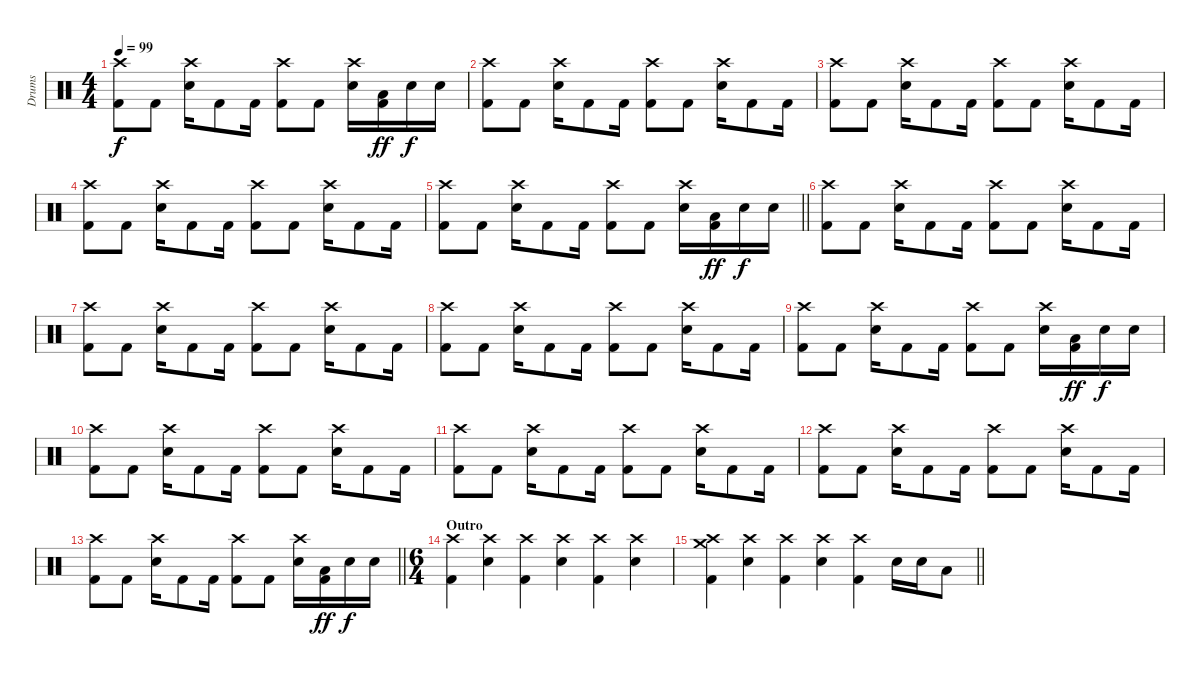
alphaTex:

\track ("Drums" "Drums") {instrument percussion}
\staff {score}
\articulation defaults
\ts (4 4)
\tempo 99
\clef neutral
\ks c
("Crash high (hit)" "Kick (hit) 2").8{dy f} "Kick (hit) 2".8 ("Crash high (hit)" "Electric Snare (hit)").16 "Kick (hit) 2".8 "Kick (hit) 2".16 ("Crash high (hit)" "Kick (hit) 2").8 "Kick (hit) 2".8 ("Crash high (hit)" "Electric Snare (hit)").16 ("Low Floor Tom (hit)" "Kick (hit) 2").16{dy ff} "Electric Snare (hit)".16{dy f} "Electric Snare (hit)".16 |
("Crash high (hit)" "Kick (hit) 2").8 "Kick (hit) 2".8 ("Crash high (hit)" "Electric Snare (hit)").16 "Kick (hit) 2".8 "Kick (hit) 2".16 ("Crash high (hit)" "Kick (hit) 2").8 "Kick (hit) 2".8 ("Crash high (hit)" "Electric Snare (hit)").16 "Kick (hit) 2".8 "Kick (hit) 2".16 |
("Crash high (hit)" "Kick (hit) 2").8 "Kick (hit) 2".8 ("Crash high (hit)" "Electric Snare (hit)").16 "Kick (hit) 2".8 "Kick (hit) 2".16 ("Crash high (hit)" "Kick (hit) 2").8 "Kick (hit) 2".8 ("Crash high (hit)" "Electric Snare (hit)").16 "Kick (hit) 2".8 "Kick (hit) 2".16 |
("Crash high (hit)" "Kick (hit) 2").8 "Kick (hit) 2".8 ("Crash high (hit)" "Electric Snare (hit)").16 "Kick (hit) 2".8 "Kick (hit) 2".16 ("Crash high (hit)" "Kick (hit) 2").8 "Kick (hit) 2".8 ("Crash high (hit)" "Electric Snare (hit)").16 "Kick (hit) 2".8 "Kick (hit) 2".16 |
\barLineRight lightlight
("Crash high (hit)" "Kick (hit) 2").8 "Kick (hit) 2".8 ("Crash high (hit)" "Electric Snare (hit)").16 "Kick (hit) 2".8 "Kick (hit) 2".16 ("Crash high (hit)" "Kick (hit) 2").8 "Kick (hit) 2".8 ("Crash high (hit)" "Electric Snare (hit)").16 ("Low Floor Tom (hit)" "Kick (hit) 2").16{dy ff} "Electric Snare (hit)".16{dy f} "Electric Snare (hit)".16 |
("Crash high (hit)" "Kick (hit) 2").8 "Kick (hit) 2".8 ("Crash high (hit)" "Electric Snare (hit)").16 "Kick (hit) 2".8 "Kick (hit) 2".16 ("Crash high (hit)" "Kick (hit) 2").8 "Kick (hit) 2".8 ("Crash high (hit)" "Electric Snare (hit)").16 "Kick (hit) 2".8 "Kick (hit) 2".16 |
("Crash high (hit)" "Kick (hit) 2").8 "Kick (hit) 2".8 ("Crash high (hit)" "Electric Snare (hit)").16 "Kick (hit) 2".8 "Kick (hit) 2".16 ("Crash high (hit)" "Kick (hit) 2").8 "Kick (hit) 2".8 ("Crash high (hit)" "Electric Snare (hit)").16 "Kick (hit) 2".8 "Kick (hit) 2".16 |
("Crash high (hit)" "Kick (hit) 2").8 "Kick (hit) 2".8 ("Crash high (hit)" "Electric Snare (hit)").16 "Kick (hit) 2".8 "Kick (hit) 2".16 ("Crash high (hit)" "Kick (hit) 2").8 "Kick (hit) 2".8 ("Crash high (hit)" "Electric Snare (hit)").16 "Kick (hit) 2".8 "Kick (hit) 2".16 |
("Crash high (hit)" "Kick (hit) 2").8 "Kick (hit) 2".8 ("Crash high (hit)" "Electric Snare (hit)").16 "Kick (hit) 2".8 "Kick (hit) 2".16 ("Crash high (hit)" "Kick (hit) 2").8 "Kick (hit) 2".8 ("Crash high (hit)" "Electric Snare (hit)").16 ("Low Floor Tom (hit)" "Kick (hit) 2").16{dy ff} "Electric Snare (hit)".16{dy f} "Electric Snare (hit)".16 |
("Crash high (hit)" "Kick (hit) 2").8 "Kick (hit) 2".8 ("Crash high (hit)" "Electric Snare (hit)").16 "Kick (hit) 2".8 "Kick (hit) 2".16 ("Crash high (hit)" "Kick (hit) 2").8 "Kick (hit) 2".8 ("Crash high (hit)" "Electric Snare (hit)").16 "Kick (hit) 2".8 "Kick (hit) 2".16 |
("Crash high (hit)" "Kick (hit) 2").8 "Kick (hit) 2".8 ("Crash high (hit)" "Electric Snare (hit)").16 "Kick (hit) 2".8 "Kick (hit) 2".16 ("Crash high (hit)" "Kick (hit) 2").8 "Kick (hit) 2".8 ("Crash high (hit)" "Electric Snare (hit)").16 "Kick (hit) 2".8 "Kick (hit) 2".16 |
("Crash high (hit)" "Kick (hit) 2").8 "Kick (hit) 2".8 ("Crash high (hit)" "Electric Snare (hit)").16 "Kick (hit) 2".8 "Kick (hit) 2".16 ("Crash high (hit)" "Kick (hit) 2").8 "Kick (hit) 2".8 ("Crash high (hit)" "Electric Snare (hit)").16 "Kick (hit) 2".8 "Kick (hit) 2".16 |
\barLineRight lightlight
("Crash high (hit)" "Kick (hit) 2").8 "Kick (hit) 2".8 ("Crash high (hit)" "Electric Snare (hit)").16 "Kick (hit) 2".8 "Kick (hit) 2".16 ("Crash high (hit)" "Kick (hit) 2").8 "Kick (hit) 2".8 ("Crash high (hit)" "Electric Snare (hit)").16 ("Low Floor Tom (hit)" "Kick (hit) 2").16{dy ff} "Electric Snare (hit)".16{dy f} "Electric Snare (hit)".16 |
\ts (6 4)
\section ("" "Outro")
("Crash high (hit)" "Kick (hit) 2").4 ("Crash high (hit)" "Electric Snare (hit)").4 ("Crash high (hit)" "Kick (hit) 2").4 ("Crash high (hit)" "Electric Snare (hit)").4 ("Crash high (hit)" "Kick (hit) 2").4 ("Crash high (hit)" "Electric Snare (hit)").4 |
\barLineRight lightlight
("Crash medium (hit)" "Crash high (hit)" "Kick (hit) 2").4 ("Crash high (hit)" "Electric Snare (hit)").4 ("Crash high (hit)" "Kick (hit) 2").4 ("Crash high (hit)" "Electric Snare (hit)").4 ("Crash high (hit)" "Kick (hit) 2").4 "Electric Snare (hit)".16 "Electric Snare (hit)".16 "Low Floor Tom (hit)".8
